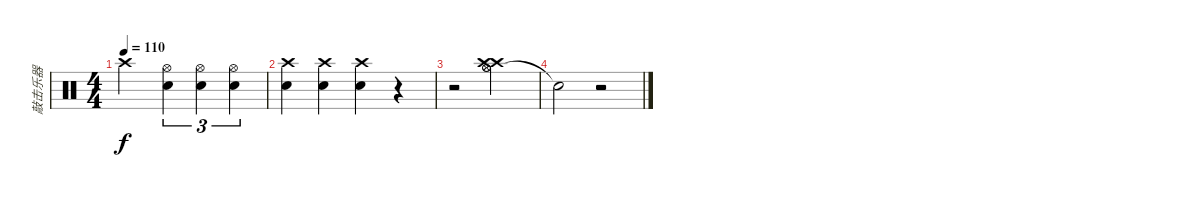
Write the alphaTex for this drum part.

\track ("敲击乐器" "敲击乐器") {instrument percussion}
\staff {score}
\articulation defaults
\ts (4 4)
\tempo 110
\clef neutral
\ks c "Crash high (hit)".2{dy f}
("Hi-Hat (open)" "Electric Snare (hit)").4{tu (3 2)} ("Hi-Hat (open)" "Electric Snare (hit)").4{tu (3 2)} ("Hi-Hat (open)" "Electric Snare (hit)").4{tu (3 2)} |
("Electric Snare (hit)" "Crash high (hit)").4 ("Electric Snare (hit)" "Crash high (hit)").4 ("Electric Snare (hit)" "Crash high (hit)").4 r.4 |
r.2 ("Hi-Hat (open)" "Hi-Hat (open)" "Crash high (hit)" "Crash high (hit)").2 |
"Snare (hit)"{t}.2 r.2
